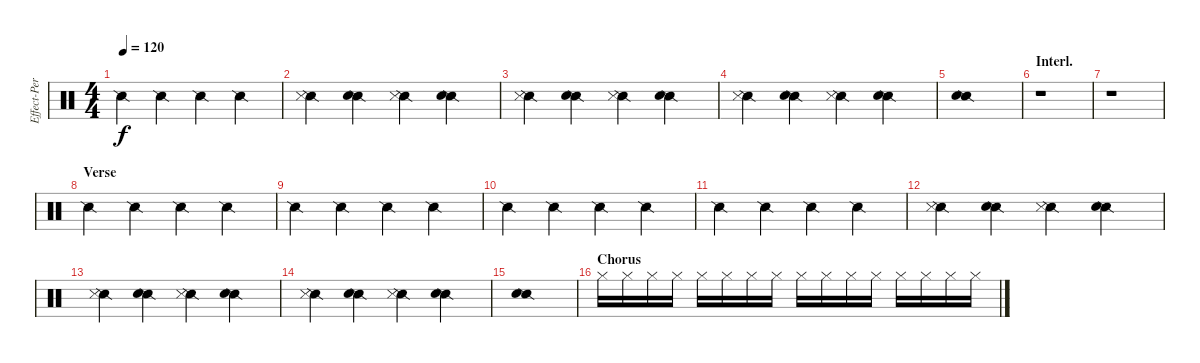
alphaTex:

\track ("Effect-Percs" "Effect-Per") {instrument percussion}
\staff {score}
\articulation defaults
\ts (4 4)
\tempo 120
\clef neutral
\ks c "Snare (side stick) 2".4{dy f} "Snare (side stick) 2".4 "Snare (side stick) 2".4 "Snare (side stick) 2".4
|
("Snare (side stick) 2" "Metronome (hit)").4 ("Snare (side stick) 2" "Metronome (bell)").4 ("Snare (side stick) 2" "Metronome (hit)").4 ("Snare (side stick) 2" "Metronome (bell)").4 |
("Snare (side stick) 2" "Metronome (hit)").4 ("Snare (side stick) 2" "Metronome (bell)").4 ("Snare (side stick) 2" "Metronome (hit)").4 ("Snare (side stick) 2" "Metronome (bell)").4 |
("Snare (side stick) 2" "Metronome (hit)").4 ("Snare (side stick) 2" "Metronome (bell)").4 ("Snare (side stick) 2" "Metronome (hit)").4 ("Snare (side stick) 2" "Metronome (bell)").4 |
("Snare (side stick) 2" "Metronome (bell)").1 |
\section ("" "Interl.")
r.1 |
r.1 |
\section ("" "Verse")
"Snare (side stick) 2".4 "Snare (side stick) 2".4 "Snare (side stick) 2".4 "Snare (side stick) 2".4 |
"Snare (side stick) 2".4 "Snare (side stick) 2".4 "Snare (side stick) 2".4 "Snare (side stick) 2".4 |
"Snare (side stick) 2".4 "Snare (side stick) 2".4 "Snare (side stick) 2".4 "Snare (side stick) 2".4 |
"Snare (side stick) 2".4 "Snare (side stick) 2".4 "Snare (side stick) 2".4 "Snare (side stick) 2".4 |
("Snare (side stick) 2" "Metronome (hit)").4 ("Snare (side stick) 2" "Metronome (bell)").4 ("Snare (side stick) 2" "Metronome (hit)").4 ("Snare (side stick) 2" "Metronome (bell)").4 |
("Snare (side stick) 2" "Metronome (hit)").4 ("Snare (side stick) 2" "Metronome (bell)").4 ("Snare (side stick) 2" "Metronome (hit)").4 ("Snare (side stick) 2" "Metronome (bell)").4 |
("Snare (side stick) 2" "Metronome (hit)").4 ("Snare (side stick) 2" "Metronome (bell)").4 ("Snare (side stick) 2" "Metronome (hit)").4 ("Snare (side stick) 2" "Metronome (bell)").4 |
("Snare (side stick) 2" "Metronome (bell)").1 |
\section ("" "Chorus")
"Hi-Hat (closed)".16 "Hi-Hat (closed)".16 "Hi-Hat (closed)".16 "Hi-Hat (closed)".16 "Hi-Hat (closed)".16 "Hi-Hat (closed)".16 "Hi-Hat (closed)".16 "Hi-Hat (closed)".16 "Hi-Hat (closed)".16 "Hi-Hat (closed)".16 "Hi-Hat (closed)".16 "Hi-Hat (closed)".16 "Hi-Hat (closed)".16 "Hi-Hat (closed)".16 "Hi-Hat (closed)".16 "Hi-Hat (closed)".16
